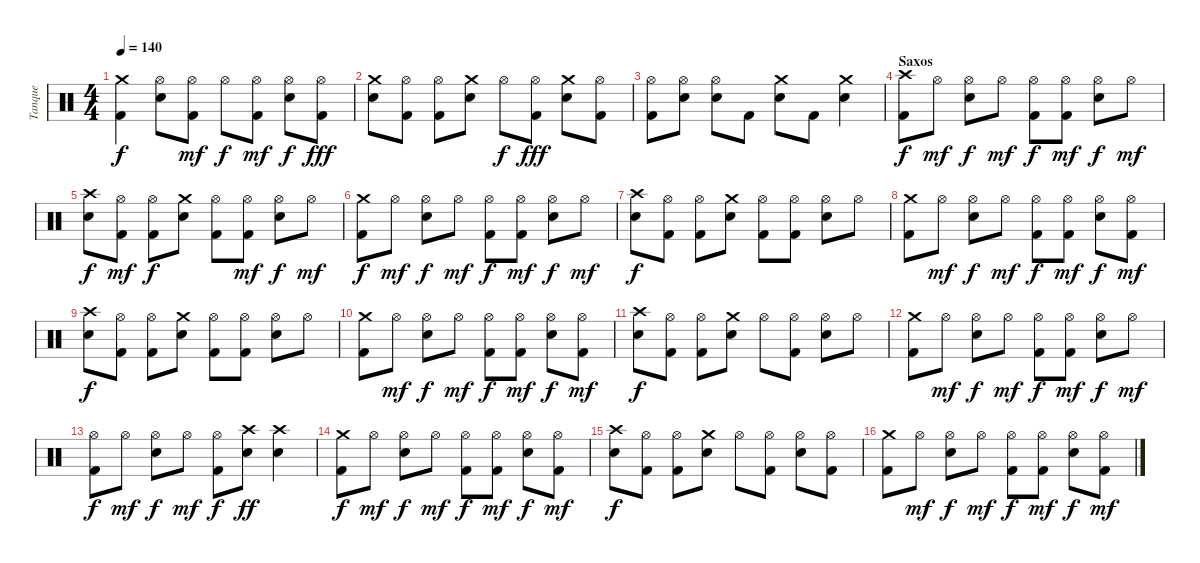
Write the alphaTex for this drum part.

\track ("Tanque" "Tanque") {instrument percussion}
\staff {score}
\articulation defaults
\ts (4 4)
\tempo 140
\clef neutral
\ks c
("Crash medium (hit)" "Kick (hit) 2").4{dy f} ("Hi-Hat (open)" "Electric Snare (hit)").8 ("Hi-Hat (open)" "Kick (hit) 2").8{dy mf} "Hi-Hat (open)".8{dy f} ("Hi-Hat (open)" "Kick (hit) 2").8{dy mf} ("Hi-Hat (open)" "Electric Snare (hit)").8{dy f} ("Hi-Hat (open)" "Kick (hit) 2").8{dy fff} |
("Crash medium (hit)" "Electric Snare (hit)").8 ("Hi-Hat (open)" "Kick (hit) 2").8 ("Hi-Hat (open)" "Kick (hit) 2").8 ("Crash medium (hit)" "Electric Snare (hit)").8 "Hi-Hat (open)".8{dy f} ("Hi-Hat (open)" "Kick (hit) 2").8{dy fff} ("Crash medium (hit)" "Electric Snare (hit)").8 ("Hi-Hat (open)" "Kick (hit) 2").8 |
("Hi-Hat (open)" "Kick (hit) 2").8 ("Hi-Hat (open)" "Electric Snare (hit)").8 ("Hi-Hat (open)" "Electric Snare (hit)").8 "Kick (hit) 2".8 ("Crash medium (hit)" "Electric Snare (hit)").8 "Kick (hit) 2".8 ("Crash medium (hit)" "Electric Snare (hit)").4 |
\section ("" "Saxos")
("Crash high (hit)" "Kick (hit) 2").8{dy f} "Hi-Hat (open)".8{dy mf} ("Hi-Hat (open)" "Electric Snare (hit)").8{dy f} "Hi-Hat (open)".8{dy mf} ("Hi-Hat (open)" "Kick (hit) 2").8{dy f} ("Hi-Hat (open)" "Kick (hit) 2").8{dy mf} ("Hi-Hat (open)" "Electric Snare (hit)").8{dy f} "Hi-Hat (open)".8{dy mf} |
("Crash high (hit)" "Electric Snare (hit)").8{dy f} ("Hi-Hat (open)" "Kick (hit) 2").8{dy mf} ("Hi-Hat (open)" "Kick (hit) 2").8{dy f} ("Crash medium (hit)" "Electric Snare (hit)").8 ("Hi-Hat (open)" "Kick (hit) 2").8 ("Hi-Hat (open)" "Kick (hit) 2").8{dy mf} ("Hi-Hat (open)" "Electric Snare (hit)").8{dy f} "Hi-Hat (open)".8{dy mf} |
("Crash medium (hit)" "Kick (hit) 2").8{dy f} "Hi-Hat (open)".8{dy mf} ("Hi-Hat (open)" "Electric Snare (hit)").8{dy f} "Hi-Hat (open)".8{dy mf} ("Hi-Hat (open)" "Kick (hit) 2").8{dy f} ("Hi-Hat (open)" "Kick (hit) 2").8{dy mf} ("Hi-Hat (open)" "Electric Snare (hit)").8{dy f} "Hi-Hat (open)".8{dy mf} |
("Crash high (hit)" "Electric Snare (hit)").8{dy f} ("Hi-Hat (open)" "Kick (hit) 2").8 ("Hi-Hat (open)" "Kick (hit) 2").8 ("Crash medium (hit)" "Electric Snare (hit)").8 ("Hi-Hat (open)" "Kick (hit) 2").8 ("Hi-Hat (open)" "Kick (hit) 2").8 ("Hi-Hat (open)" "Electric Snare (hit)").8 "Hi-Hat (open)".8 |
("Crash medium (hit)" "Kick (hit) 2").8 "Hi-Hat (open)".8{dy mf} ("Hi-Hat (open)" "Electric Snare (hit)").8{dy f} "Hi-Hat (open)".8{dy mf} ("Hi-Hat (open)" "Kick (hit) 2").8{dy f} ("Hi-Hat (open)" "Kick (hit) 2").8{dy mf} ("Hi-Hat (open)" "Electric Snare (hit)").8{dy f} ("Hi-Hat (open)" "Kick (hit) 2").8{dy mf} |
("Crash high (hit)" "Electric Snare (hit)").8{dy f} ("Hi-Hat (open)" "Kick (hit) 2").8 ("Hi-Hat (open)" "Kick (hit) 2").8 ("Crash medium (hit)" "Electric Snare (hit)").8 ("Hi-Hat (open)" "Kick (hit) 2").8 ("Hi-Hat (open)" "Kick (hit) 2").8 ("Hi-Hat (open)" "Electric Snare (hit)").8 "Hi-Hat (open)".8 |
("Crash medium (hit)" "Kick (hit) 2").8 "Hi-Hat (open)".8{dy mf} ("Hi-Hat (open)" "Electric Snare (hit)").8{dy f} "Hi-Hat (open)".8{dy mf} ("Hi-Hat (open)" "Kick (hit) 2").8{dy f} ("Hi-Hat (open)" "Kick (hit) 2").8{dy mf} ("Hi-Hat (open)" "Electric Snare (hit)").8{dy f} ("Hi-Hat (open)" "Kick (hit) 2").8{dy mf} |
("Crash high (hit)" "Electric Snare (hit)").8{dy f} ("Hi-Hat (open)" "Kick (hit) 2").8 ("Hi-Hat (open)" "Kick (hit) 2").8 ("Crash medium (hit)" "Electric Snare (hit)").8 "Hi-Hat (open)".8 ("Hi-Hat (open)" "Kick (hit) 2").8 ("Hi-Hat (open)" "Electric Snare (hit)").8 "Hi-Hat (open)".8 |
("Crash medium (hit)" "Kick (hit) 2").8 "Hi-Hat (open)".8{dy mf} ("Hi-Hat (open)" "Electric Snare (hit)").8{dy f} "Hi-Hat (open)".8{dy mf} ("Hi-Hat (open)" "Kick (hit) 2").8{dy f} ("Hi-Hat (open)" "Kick (hit) 2").8{dy mf} ("Hi-Hat (open)" "Electric Snare (hit)").8{dy f} "Hi-Hat (open)".8{dy mf} |
("Hi-Hat (open)" "Kick (hit) 2").8{dy f} "Hi-Hat (open)".8{dy mf} ("Hi-Hat (open)" "Electric Snare (hit)").8{dy f} "Hi-Hat (open)".8{dy mf} ("Hi-Hat (open)" "Kick (hit) 2").8{dy f} ("Crash high (hit)" "Electric Snare (hit)").8{dy ff} ("Crash high (hit)" "Electric Snare (hit)").4 |
("Crash medium (hit)" "Kick (hit) 2").8{dy f} "Hi-Hat (open)".8{dy mf} ("Hi-Hat (open)" "Electric Snare (hit)").8{dy f} "Hi-Hat (open)".8{dy mf} ("Hi-Hat (open)" "Kick (hit) 2").8{dy f} ("Hi-Hat (open)" "Kick (hit) 2").8{dy mf} ("Hi-Hat (open)" "Electric Snare (hit)").8{dy f} ("Hi-Hat (open)" "Kick (hit) 2").8{dy mf} |
("Crash high (hit)" "Electric Snare (hit)").8{dy f} ("Hi-Hat (open)" "Kick (hit) 2").8 ("Hi-Hat (open)" "Kick (hit) 2").8 ("Crash medium (hit)" "Electric Snare (hit)").8 "Hi-Hat (open)".8 ("Hi-Hat (open)" "Kick (hit) 2").8 ("Hi-Hat (open)" "Electric Snare (hit)").8 ("Hi-Hat (open)" "Kick (hit) 2").8 |
("Crash medium (hit)" "Kick (hit) 2").8 "Hi-Hat (open)".8{dy mf} ("Hi-Hat (open)" "Electric Snare (hit)").8{dy f} "Hi-Hat (open)".8{dy mf} ("Hi-Hat (open)" "Kick (hit) 2").8{dy f} ("Hi-Hat (open)" "Kick (hit) 2").8{dy mf} ("Hi-Hat (open)" "Electric Snare (hit)").8{dy f} ("Hi-Hat (open)" "Kick (hit) 2").8{dy mf}
